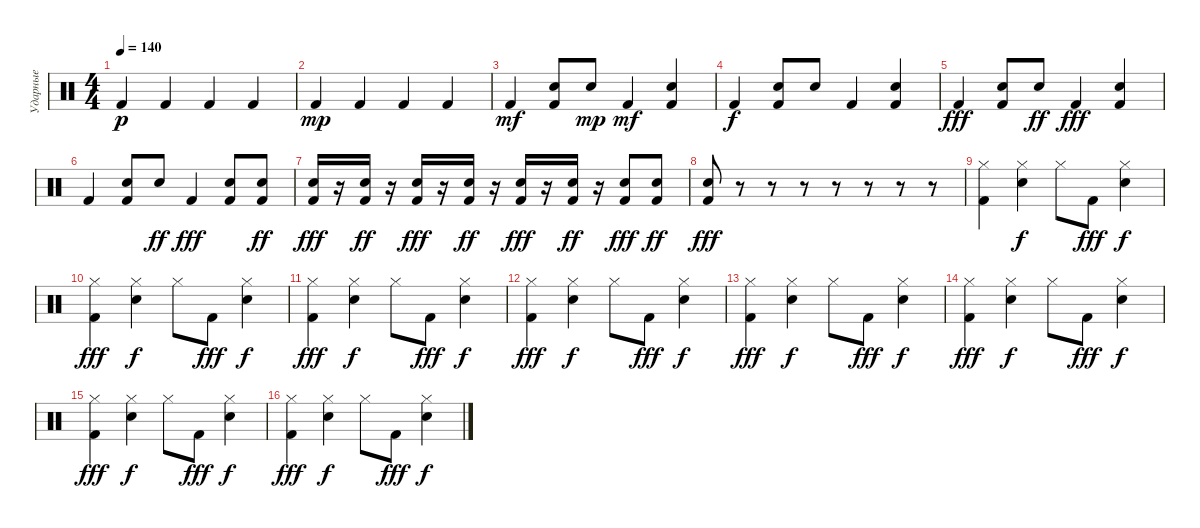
\track ("Ударные" "Ударные") {instrument percussion}
\staff {score}
\articulation defaults
\ts (4 4)
\tempo 140
\clef neutral
\ks c "Kick (hit) 2".4{dy p} "Kick (hit) 2".4 "Kick (hit) 2".4 "Kick (hit) 2".4
|
"Kick (hit) 2".4{dy mp} "Kick (hit) 2".4 "Kick (hit) 2".4 "Kick (hit) 2".4 |
"Kick (hit) 2".4{dy mf} ("Hand Clap (hit)" "Kick (hit) 2").8 "Hand Clap (hit)".8{dy mp} "Kick (hit) 2".4{dy mf} ("Hand Clap (hit)" "Kick (hit) 2").4 |
"Kick (hit) 2".4{dy f} ("Hand Clap (hit)" "Kick (hit) 2").8 "Hand Clap (hit)".8 "Kick (hit) 2".4 ("Hand Clap (hit)" "Kick (hit) 2").4 |
"Kick (hit) 2".4{dy fff} ("Hand Clap (hit)" "Kick (hit) 2").8 "Hand Clap (hit)".8{dy ff} "Kick (hit) 2".4{dy fff} ("Hand Clap (hit)" "Kick (hit) 2").4 |
"Kick (hit) 2".4 ("Hand Clap (hit)" "Kick (hit) 2").8 "Hand Clap (hit)".8{dy ff} "Kick (hit) 2".4{dy fff} ("Hand Clap (hit)" "Kick (hit) 2").8 ("Hand Clap (hit)" "Kick (hit) 2").8{dy ff} |
("Hand Clap (hit)" "Kick (hit) 2").16{dy fff} r.16 ("Hand Clap (hit)" "Kick (hit) 2").16{dy ff} r.16 ("Hand Clap (hit)" "Kick (hit) 2").16{dy fff} r.16 ("Hand Clap (hit)" "Kick (hit) 2").16{dy ff} r.16 ("Hand Clap (hit)" "Kick (hit) 2").16{dy fff} r.16 ("Hand Clap (hit)" "Kick (hit) 2").16{dy ff} r.16 ("Hand Clap (hit)" "Kick (hit) 2").8{dy fff} ("Hand Clap (hit)" "Kick (hit) 2").8{dy ff} |
("Hand Clap (hit)" "Kick (hit) 2").8{dy fff} r.8 r.8 r.8 r.8 r.8 r.8 r.8 |
("Hi-Hat (closed)" "Kick (hit) 2").4 ("Hi-Hat (closed)" "Snare (hit) 2").4{dy f} "Hi-Hat (closed)".8 "Kick (hit) 2".8{dy fff} ("Hi-Hat (closed)" "Snare (hit) 2").4{dy f} |
("Hi-Hat (closed)" "Kick (hit) 2").4{dy fff} ("Hi-Hat (closed)" "Snare (hit) 2").4{dy f} "Hi-Hat (closed)".8 "Kick (hit) 2".8{dy fff} ("Hi-Hat (closed)" "Snare (hit) 2").4{dy f} |
("Hi-Hat (closed)" "Kick (hit) 2").4{dy fff} ("Hi-Hat (closed)" "Snare (hit) 2").4{dy f} "Hi-Hat (closed)".8 "Kick (hit) 2".8{dy fff} ("Hi-Hat (closed)" "Snare (hit) 2").4{dy f} |
("Hi-Hat (closed)" "Kick (hit) 2").4{dy fff} ("Hi-Hat (closed)" "Snare (hit) 2").4{dy f} "Hi-Hat (closed)".8 "Kick (hit) 2".8{dy fff} ("Hi-Hat (closed)" "Snare (hit) 2").4{dy f} |
("Hi-Hat (closed)" "Kick (hit) 2").4{dy fff} ("Hi-Hat (closed)" "Snare (hit) 2").4{dy f} "Hi-Hat (closed)".8 "Kick (hit) 2".8{dy fff} ("Hi-Hat (closed)" "Snare (hit) 2").4{dy f} |
("Hi-Hat (closed)" "Kick (hit) 2").4{dy fff} ("Hi-Hat (closed)" "Snare (hit) 2").4{dy f} "Hi-Hat (closed)".8 "Kick (hit) 2".8{dy fff} ("Hi-Hat (closed)" "Snare (hit) 2").4{dy f} |
("Hi-Hat (closed)" "Kick (hit) 2").4{dy fff} ("Hi-Hat (closed)" "Snare (hit) 2").4{dy f} "Hi-Hat (closed)".8 "Kick (hit) 2".8{dy fff} ("Hi-Hat (closed)" "Snare (hit) 2").4{dy f} |
("Hi-Hat (closed)" "Kick (hit) 2").4{dy fff} ("Hi-Hat (closed)" "Snare (hit) 2").4{dy f} "Hi-Hat (closed)".8 "Kick (hit) 2".8{dy fff} ("Hi-Hat (closed)" "Snare (hit) 2").4{dy f}
